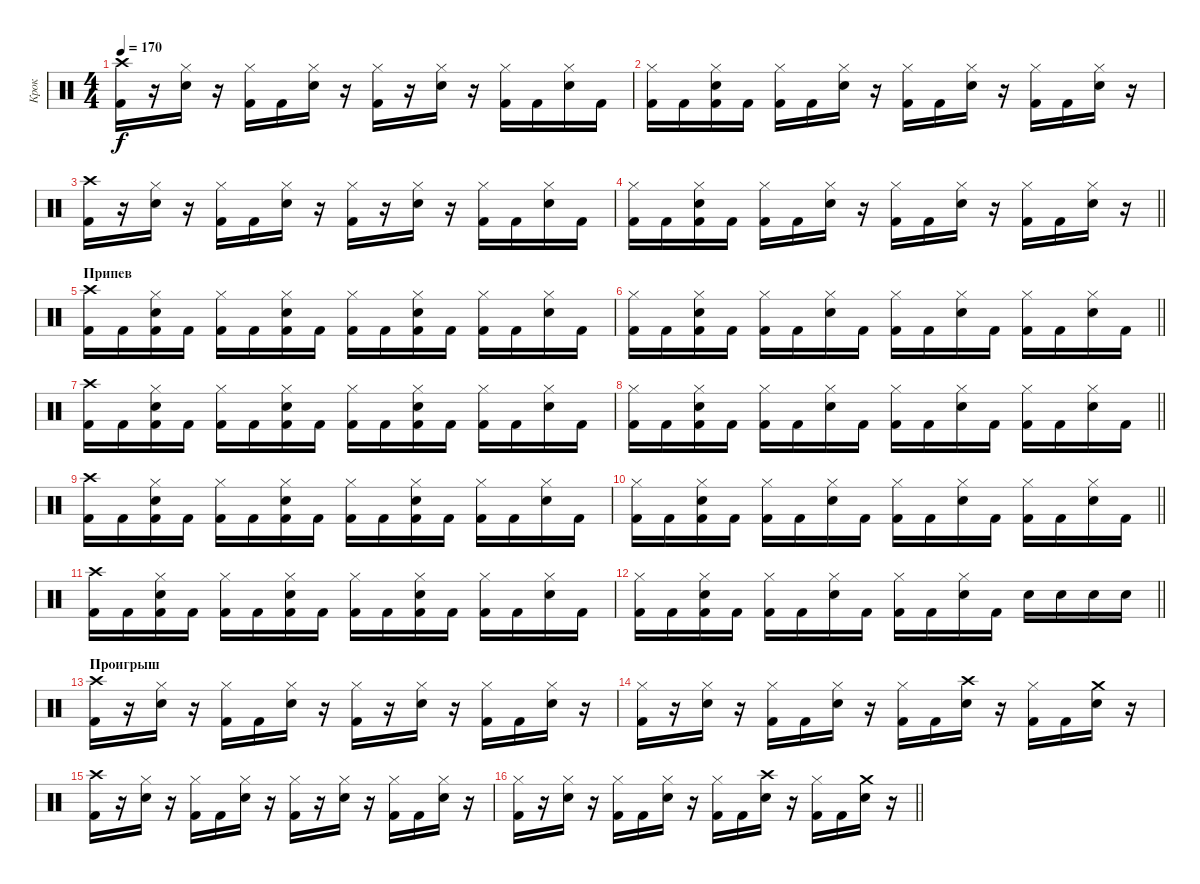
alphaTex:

\track ("Крок" "Крок") {instrument percussion}
\staff {score}
\articulation defaults
\ts (4 4)
\tempo 170
\clef neutral
\ks aminor
("Kick (hit) 2" "Crash high (hit)").16{dy f} r.16 ("Electric Snare (hit)" "Hi-Hat (closed)").16 r.16 ("Kick (hit) 2" "Hi-Hat (closed)").16 "Kick (hit) 2".16 ("Electric Snare (hit)" "Hi-Hat (closed)").16 r.16 ("Kick (hit) 2" "Hi-Hat (closed)").16 r.16 ("Electric Snare (hit)" "Hi-Hat (closed)").16 r.16 ("Kick (hit) 2" "Hi-Hat (closed)").16 "Kick (hit) 2".16 ("Electric Snare (hit)" "Hi-Hat (closed)").16 "Kick (hit) 2".16 |
("Kick (hit) 2" "Hi-Hat (closed)").16 "Kick (hit) 2".16 ("Kick (hit) 2" "Electric Snare (hit)" "Hi-Hat (closed)").16 "Kick (hit) 2".16 ("Kick (hit) 2" "Hi-Hat (closed)").16 "Kick (hit) 2".16 ("Electric Snare (hit)" "Hi-Hat (closed)").16 r.16 ("Kick (hit) 2" "Hi-Hat (closed)").16 "Kick (hit) 2".16 ("Electric Snare (hit)" "Hi-Hat (closed)").16 r.16 ("Kick (hit) 2" "Hi-Hat (closed)").16 "Kick (hit) 2".16 ("Electric Snare (hit)" "Hi-Hat (closed)").16 r.16 |
("Kick (hit) 2" "Crash high (hit)").16 r.16 ("Electric Snare (hit)" "Hi-Hat (closed)").16 r.16 ("Kick (hit) 2" "Hi-Hat (closed)").16 "Kick (hit) 2".16 ("Electric Snare (hit)" "Hi-Hat (closed)").16 r.16 ("Kick (hit) 2" "Hi-Hat (closed)").16 r.16 ("Electric Snare (hit)" "Hi-Hat (closed)").16 r.16 ("Kick (hit) 2" "Hi-Hat (closed)").16 "Kick (hit) 2".16 ("Electric Snare (hit)" "Hi-Hat (closed)").16 "Kick (hit) 2".16 |
\barLineRight lightlight
("Kick (hit) 2" "Hi-Hat (closed)").16 "Kick (hit) 2".16 ("Kick (hit) 2" "Electric Snare (hit)" "Hi-Hat (closed)").16 "Kick (hit) 2".16 ("Kick (hit) 2" "Hi-Hat (closed)").16 "Kick (hit) 2".16 ("Electric Snare (hit)" "Hi-Hat (closed)").16 r.16 ("Kick (hit) 2" "Hi-Hat (closed)").16 "Kick (hit) 2".16 ("Electric Snare (hit)" "Hi-Hat (closed)").16 r.16 ("Kick (hit) 2" "Hi-Hat (closed)").16 "Kick (hit) 2".16 ("Electric Snare (hit)" "Hi-Hat (closed)").16 r.16 |
\section ("" "Припев")
("Kick (hit) 2" "Crash high (hit)").16 "Kick (hit) 2".16 ("Kick (hit) 2" "Electric Snare (hit)" "Hi-Hat (closed)").16 "Kick (hit) 2".16 ("Kick (hit) 2" "Hi-Hat (closed)").16 "Kick (hit) 2".16 ("Kick (hit) 2" "Electric Snare (hit)" "Hi-Hat (closed)").16 "Kick (hit) 2".16 ("Kick (hit) 2" "Hi-Hat (closed)").16 "Kick (hit) 2".16 ("Kick (hit) 2" "Electric Snare (hit)" "Hi-Hat (closed)").16 "Kick (hit) 2".16 ("Kick (hit) 2" "Hi-Hat (closed)").16 "Kick (hit) 2".16 ("Electric Snare (hit)" "Hi-Hat (closed)").16 "Kick (hit) 2".16 |
\barLineRight lightlight
("Kick (hit) 2" "Hi-Hat (closed)").16 "Kick (hit) 2".16 ("Kick (hit) 2" "Electric Snare (hit)" "Hi-Hat (closed)").16 "Kick (hit) 2".16 ("Kick (hit) 2" "Hi-Hat (closed)").16 "Kick (hit) 2".16 ("Electric Snare (hit)" "Hi-Hat (closed)").16 "Kick (hit) 2".16 ("Kick (hit) 2" "Hi-Hat (closed)").16 "Kick (hit) 2".16 ("Electric Snare (hit)" "Hi-Hat (closed)").16 "Kick (hit) 2".16 ("Kick (hit) 2" "Hi-Hat (closed)").16 "Kick (hit) 2".16 ("Electric Snare (hit)" "Hi-Hat (closed)").16 "Kick (hit) 2".16 |
("Kick (hit) 2" "Crash high (hit)").16 "Kick (hit) 2".16 ("Kick (hit) 2" "Electric Snare (hit)" "Hi-Hat (closed)").16 "Kick (hit) 2".16 ("Kick (hit) 2" "Hi-Hat (closed)").16 "Kick (hit) 2".16 ("Kick (hit) 2" "Electric Snare (hit)" "Hi-Hat (closed)").16 "Kick (hit) 2".16 ("Kick (hit) 2" "Hi-Hat (closed)").16 "Kick (hit) 2".16 ("Kick (hit) 2" "Electric Snare (hit)" "Hi-Hat (closed)").16 "Kick (hit) 2".16 ("Kick (hit) 2" "Hi-Hat (closed)").16 "Kick (hit) 2".16 ("Electric Snare (hit)" "Hi-Hat (closed)").16 "Kick (hit) 2".16 |
\barLineRight lightlight
("Kick (hit) 2" "Hi-Hat (closed)").16 "Kick (hit) 2".16 ("Kick (hit) 2" "Electric Snare (hit)" "Hi-Hat (closed)").16 "Kick (hit) 2".16 ("Kick (hit) 2" "Hi-Hat (closed)").16 "Kick (hit) 2".16 ("Electric Snare (hit)" "Hi-Hat (closed)").16 "Kick (hit) 2".16 ("Kick (hit) 2" "Hi-Hat (closed)").16 "Kick (hit) 2".16 ("Electric Snare (hit)" "Hi-Hat (closed)").16 "Kick (hit) 2".16 ("Kick (hit) 2" "Hi-Hat (closed)").16 "Kick (hit) 2".16 ("Electric Snare (hit)" "Hi-Hat (closed)").16 "Kick (hit) 2".16 |
("Kick (hit) 2" "Crash high (hit)").16 "Kick (hit) 2".16 ("Kick (hit) 2" "Electric Snare (hit)" "Hi-Hat (closed)").16 "Kick (hit) 2".16 ("Kick (hit) 2" "Hi-Hat (closed)").16 "Kick (hit) 2".16 ("Kick (hit) 2" "Electric Snare (hit)" "Hi-Hat (closed)").16 "Kick (hit) 2".16 ("Kick (hit) 2" "Hi-Hat (closed)").16 "Kick (hit) 2".16 ("Kick (hit) 2" "Electric Snare (hit)" "Hi-Hat (closed)").16 "Kick (hit) 2".16 ("Kick (hit) 2" "Hi-Hat (closed)").16 "Kick (hit) 2".16 ("Electric Snare (hit)" "Hi-Hat (closed)").16 "Kick (hit) 2".16 |
\barLineRight lightlight
("Kick (hit) 2" "Hi-Hat (closed)").16 "Kick (hit) 2".16 ("Kick (hit) 2" "Electric Snare (hit)" "Hi-Hat (closed)").16 "Kick (hit) 2".16 ("Kick (hit) 2" "Hi-Hat (closed)").16 "Kick (hit) 2".16 ("Electric Snare (hit)" "Hi-Hat (closed)").16 "Kick (hit) 2".16 ("Kick (hit) 2" "Hi-Hat (closed)").16 "Kick (hit) 2".16 ("Electric Snare (hit)" "Hi-Hat (closed)").16 "Kick (hit) 2".16 ("Kick (hit) 2" "Hi-Hat (closed)").16 "Kick (hit) 2".16 ("Electric Snare (hit)" "Hi-Hat (closed)").16 "Kick (hit) 2".16 |
("Kick (hit) 2" "Crash high (hit)").16 "Kick (hit) 2".16 ("Kick (hit) 2" "Electric Snare (hit)" "Hi-Hat (closed)").16 "Kick (hit) 2".16 ("Kick (hit) 2" "Hi-Hat (closed)").16 "Kick (hit) 2".16 ("Kick (hit) 2" "Electric Snare (hit)" "Hi-Hat (closed)").16 "Kick (hit) 2".16 ("Kick (hit) 2" "Hi-Hat (closed)").16 "Kick (hit) 2".16 ("Kick (hit) 2" "Electric Snare (hit)" "Hi-Hat (closed)").16 "Kick (hit) 2".16 ("Kick (hit) 2" "Hi-Hat (closed)").16 "Kick (hit) 2".16 ("Electric Snare (hit)" "Hi-Hat (closed)").16 "Kick (hit) 2".16 |
\barLineRight lightlight
("Kick (hit) 2" "Hi-Hat (closed)").16 "Kick (hit) 2".16 ("Kick (hit) 2" "Electric Snare (hit)" "Hi-Hat (closed)").16 "Kick (hit) 2".16 ("Kick (hit) 2" "Hi-Hat (closed)").16 "Kick (hit) 2".16 ("Electric Snare (hit)" "Hi-Hat (closed)").16 "Kick (hit) 2".16 ("Kick (hit) 2" "Hi-Hat (closed)").16 "Kick (hit) 2".16 ("Electric Snare (hit)" "Hi-Hat (closed)").16 "Kick (hit) 2".16 "Electric Snare (hit)".16 "Electric Snare (hit)".16 "Electric Snare (hit)".16 "Electric Snare (hit)".16 |
\section ("" "Проигрыш")
("Kick (hit) 2" "Crash high (hit)").16 r.16 ("Electric Snare (hit)" "Hi-Hat (closed)").16 r.16 ("Kick (hit) 2" "Hi-Hat (closed)").16 "Kick (hit) 2".16 ("Electric Snare (hit)" "Hi-Hat (closed)").16 r.16 ("Kick (hit) 2" "Hi-Hat (closed)").16 r.16 ("Electric Snare (hit)" "Hi-Hat (closed)").16 r.16 ("Kick (hit) 2" "Hi-Hat (closed)").16 "Kick (hit) 2".16 ("Electric Snare (hit)" "Hi-Hat (closed)").16 r.16 |
("Kick (hit) 2" "Hi-Hat (closed)").16 r.16 ("Electric Snare (hit)" "Hi-Hat (closed)").16 r.16 ("Kick (hit) 2" "Hi-Hat (closed)").16 "Kick (hit) 2".16 ("Electric Snare (hit)" "Hi-Hat (closed)").16 r.16 ("Kick (hit) 2" "Hi-Hat (closed)").16 "Kick (hit) 2".16 ("Electric Snare (hit)" "Crash high (hit)").16 r.16 ("Kick (hit) 2" "Hi-Hat (closed)").16 "Kick (hit) 2".16 ("Electric Snare (hit)" "Crash medium (hit)").16 r.16 |
("Kick (hit) 2" "Crash high (hit)").16 r.16 ("Electric Snare (hit)" "Hi-Hat (closed)").16 r.16 ("Kick (hit) 2" "Hi-Hat (closed)").16 "Kick (hit) 2".16 ("Electric Snare (hit)" "Hi-Hat (closed)").16 r.16 ("Kick (hit) 2" "Hi-Hat (closed)").16 r.16 ("Electric Snare (hit)" "Hi-Hat (closed)").16 r.16 ("Kick (hit) 2" "Hi-Hat (closed)").16 "Kick (hit) 2".16 ("Electric Snare (hit)" "Hi-Hat (closed)").16 r.16 |
\barLineRight lightlight
("Kick (hit) 2" "Hi-Hat (closed)").16 r.16 ("Electric Snare (hit)" "Hi-Hat (closed)").16 r.16 ("Kick (hit) 2" "Hi-Hat (closed)").16 "Kick (hit) 2".16 ("Electric Snare (hit)" "Hi-Hat (closed)").16 r.16 ("Kick (hit) 2" "Hi-Hat (closed)").16 "Kick (hit) 2".16 ("Electric Snare (hit)" "Crash high (hit)").16 r.16 ("Kick (hit) 2" "Hi-Hat (closed)").16 "Kick (hit) 2".16 ("Electric Snare (hit)" "Crash medium (hit)").16 r.16
